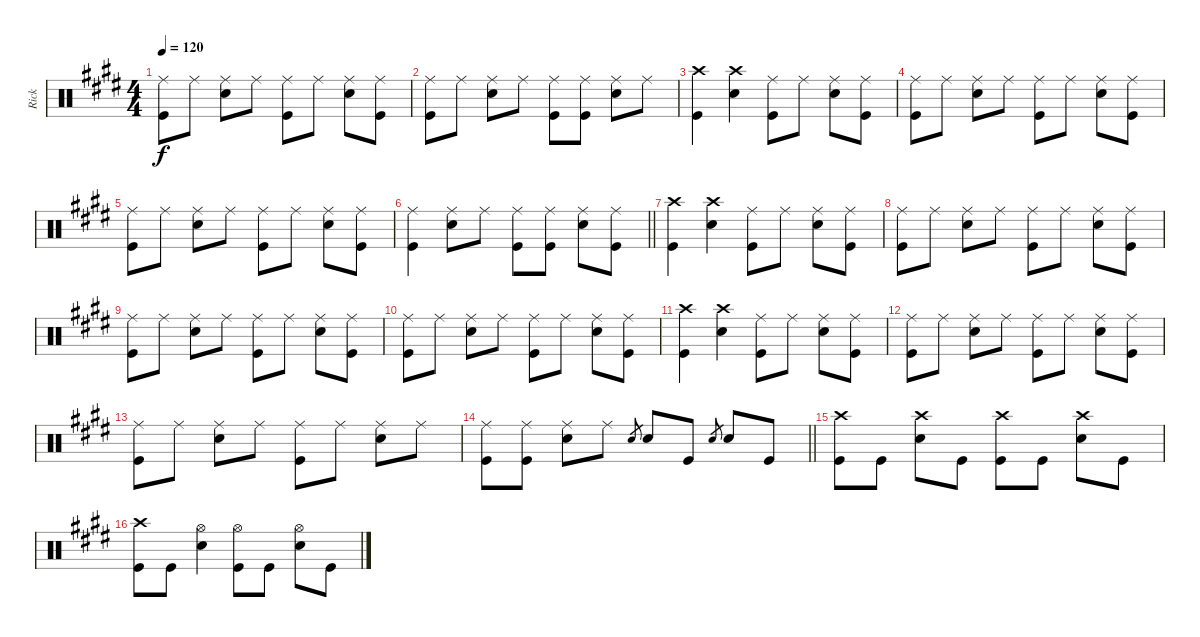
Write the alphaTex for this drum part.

\track ("Rick" "Rick") {instrument percussion}
\staff {score}
\articulation defaults
\ts (4 4)
\tempo 120
\clef neutral
\ks c#minor
("Ride (middle)" "Kick (hit)").8{dy f} "Ride (middle)".8 ("Ride (middle)" "Snare (hit) 2").8 "Ride (middle)".8 ("Ride (middle)" "Kick (hit)").8 "Ride (middle)".8 ("Ride (middle)" "Snare (hit) 2").8 ("Ride (middle)" "Kick (hit)").8 |
("Ride (middle)" "Kick (hit)").8 "Ride (middle)".8 ("Ride (middle)" "Snare (hit) 2").8 "Ride (middle)".8 ("Ride (middle)" "Kick (hit)").8 ("Ride (middle)" "Kick (hit)").8 ("Ride (middle)" "Snare (hit) 2").8 "Ride (middle)".8 |
("Crash high (hit)" "Kick (hit)").4 ("Crash high (hit)" "Snare (hit) 2").4 ("Ride (middle)" "Kick (hit)").8 "Ride (middle)".8 ("Ride (middle)" "Snare (hit) 2").8 ("Ride (middle)" "Kick (hit)").8 |
("Ride (middle)" "Kick (hit)").8 "Ride (middle)".8 ("Ride (middle)" "Snare (hit) 2").8 "Ride (middle)".8 ("Ride (middle)" "Kick (hit)").8 "Ride (middle)".8 ("Ride (middle)" "Snare (hit) 2").8 ("Ride (middle)" "Kick (hit)").8 |
("Ride (middle)" "Kick (hit)").8 "Ride (middle)".8 ("Ride (middle)" "Snare (hit) 2").8 "Ride (middle)".8 ("Ride (middle)" "Kick (hit)").8 "Ride (middle)".8 ("Ride (middle)" "Snare (hit) 2").8 ("Ride (middle)" "Kick (hit)").8 |
\barLineRight lightlight
("Ride (middle)" "Kick (hit)").4 ("Ride (middle)" "Snare (hit) 2").8 "Ride (middle)".8 ("Ride (middle)" "Kick (hit)").8 ("Ride (middle)" "Kick (hit)").8 ("Ride (middle)" "Snare (hit) 2").8 ("Ride (middle)" "Kick (hit)").8 |
("Crash high (hit)" "Kick (hit)").4 ("Crash high (hit)" "Snare (hit) 2").4 ("Ride (middle)" "Kick (hit)").8 "Ride (middle)".8 ("Ride (middle)" "Snare (hit) 2").8 ("Ride (middle)" "Kick (hit)").8 |
("Ride (middle)" "Kick (hit)").8 "Ride (middle)".8 ("Ride (middle)" "Snare (hit) 2").8 "Ride (middle)".8 ("Ride (middle)" "Kick (hit)").8 "Ride (middle)".8 ("Ride (middle)" "Snare (hit) 2").8 ("Ride (middle)" "Kick (hit)").8 |
("Ride (middle)" "Kick (hit)").8 "Ride (middle)".8 ("Ride (middle)" "Snare (hit) 2").8 "Ride (middle)".8 ("Ride (middle)" "Kick (hit)").8 "Ride (middle)".8 ("Ride (middle)" "Snare (hit) 2").8 ("Ride (middle)" "Kick (hit)").8 |
("Ride (middle)" "Kick (hit)").8 "Ride (middle)".8 ("Ride (middle)" "Snare (hit) 2").8 "Ride (middle)".8 ("Ride (middle)" "Kick (hit)").8 "Ride (middle)".8 ("Ride (middle)" "Snare (hit) 2").8 ("Ride (middle)" "Kick (hit)").8 |
("Crash high (hit)" "Kick (hit)").4 ("Crash high (hit)" "Snare (hit) 2").4 ("Ride (middle)" "Kick (hit)").8 "Ride (middle)".8 ("Ride (middle)" "Snare (hit) 2").8 ("Ride (middle)" "Kick (hit)").8 |
("Ride (middle)" "Kick (hit)").8 "Ride (middle)".8 ("Ride (middle)" "Snare (hit) 2").8 "Ride (middle)".8 ("Ride (middle)" "Kick (hit)").8 "Ride (middle)".8 ("Ride (middle)" "Snare (hit) 2").8 ("Ride (middle)" "Kick (hit)").8 |
("Ride (middle)" "Kick (hit)").8 "Ride (middle)".8 ("Ride (middle)" "Snare (hit) 2").8 "Ride (middle)".8 ("Ride (middle)" "Kick (hit)").8 "Ride (middle)".8 ("Ride (middle)" "Snare (hit) 2").8 "Ride (middle)".8 |
\barLineRight lightlight
("Ride (middle)" "Kick (hit)").8 ("Ride (middle)" "Kick (hit)").8 ("Ride (middle)" "Snare (hit) 2").8 "Ride (middle)".8 "Snare (hit) 2".8{gr} "Snare (hit) 2".8 "Kick (hit)".8 "Snare (hit) 2".8{gr} "Snare (hit) 2".8 "Kick (hit)".8 |
("Crash high (hit)" "Kick (hit)").8 "Kick (hit)".8 ("Crash high (hit)" "Snare (hit) 2").8 "Kick (hit)".8 ("Crash high (hit)" "Kick (hit)").8 "Kick (hit)".8 ("Crash high (hit)" "Snare (hit) 2").8 "Kick (hit)".8 |
("Crash high (hit)" "Kick (hit)").8 "Kick (hit)".8 ("Hi-Hat (open)" "Snare (hit) 2").4 ("Hi-Hat (open)" "Kick (hit)").8 "Kick (hit)".8 ("Hi-Hat (open)" "Snare (hit) 2").8 "Kick (hit)".8
